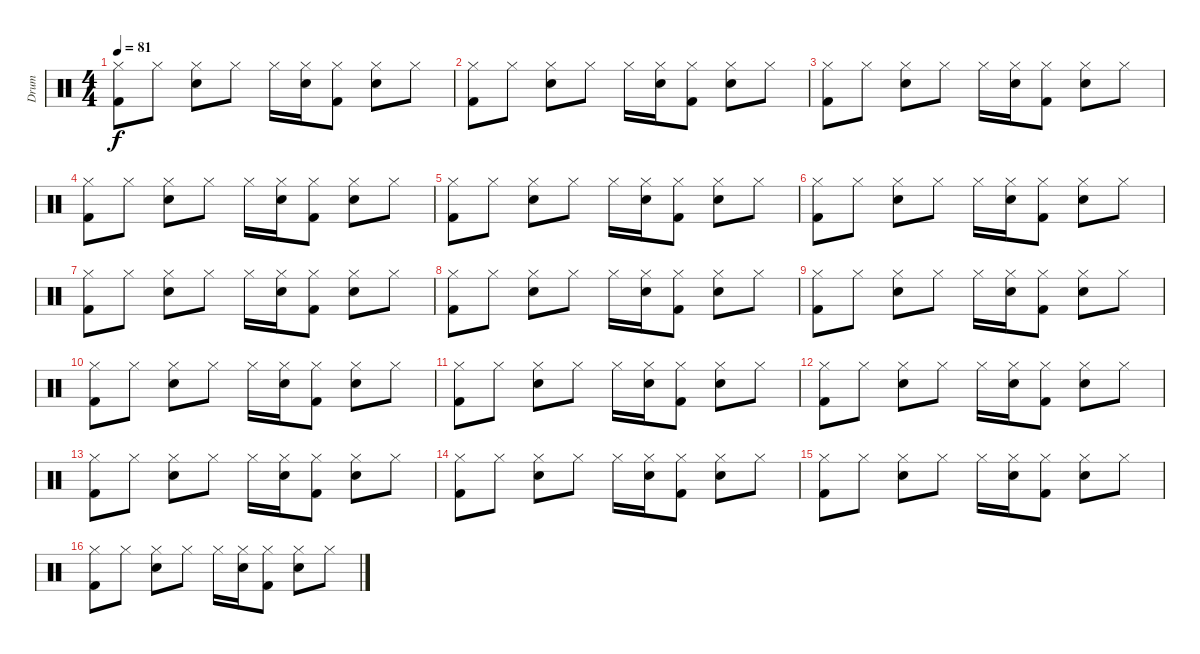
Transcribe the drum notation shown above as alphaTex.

\track ("Drum" "Drum") {instrument percussion}
\staff {score}
\articulation defaults
\ts (4 4)
\tempo 81
\clef neutral
\ks c
("Hi-Hat (closed)" "Kick (hit) 2").8{dy f} "Hi-Hat (closed)".8 ("Hi-Hat (closed)" "Snare (hit) 2").8 "Hi-Hat (closed)".8 "Hi-Hat (closed)".16 ("Hi-Hat (closed)" "Snare (hit) 2").16 ("Hi-Hat (closed)" "Kick (hit) 2").8 ("Hi-Hat (closed)" "Snare (hit) 2").8 "Hi-Hat (closed)".8 |
("Hi-Hat (closed)" "Kick (hit) 2").8 "Hi-Hat (closed)".8 ("Hi-Hat (closed)" "Snare (hit) 2").8 "Hi-Hat (closed)".8 "Hi-Hat (closed)".16 ("Hi-Hat (closed)" "Snare (hit) 2").16 ("Hi-Hat (closed)" "Kick (hit) 2").8 ("Hi-Hat (closed)" "Snare (hit) 2").8 "Hi-Hat (closed)".8 |
("Hi-Hat (closed)" "Kick (hit) 2").8 "Hi-Hat (closed)".8 ("Hi-Hat (closed)" "Snare (hit) 2").8 "Hi-Hat (closed)".8 "Hi-Hat (closed)".16 ("Hi-Hat (closed)" "Snare (hit) 2").16 ("Hi-Hat (closed)" "Kick (hit) 2").8 ("Hi-Hat (closed)" "Snare (hit) 2").8 "Hi-Hat (closed)".8 |
("Hi-Hat (closed)" "Kick (hit) 2").8 "Hi-Hat (closed)".8 ("Hi-Hat (closed)" "Snare (hit) 2").8 "Hi-Hat (closed)".8 "Hi-Hat (closed)".16 ("Hi-Hat (closed)" "Snare (hit) 2").16 ("Hi-Hat (closed)" "Kick (hit) 2").8 ("Hi-Hat (closed)" "Snare (hit) 2").8 "Hi-Hat (closed)".8 |
("Hi-Hat (closed)" "Kick (hit) 2").8 "Hi-Hat (closed)".8 ("Hi-Hat (closed)" "Snare (hit) 2").8 "Hi-Hat (closed)".8 "Hi-Hat (closed)".16 ("Hi-Hat (closed)" "Snare (hit) 2").16 ("Hi-Hat (closed)" "Kick (hit) 2").8 ("Hi-Hat (closed)" "Snare (hit) 2").8 "Hi-Hat (closed)".8 |
("Hi-Hat (closed)" "Kick (hit) 2").8 "Hi-Hat (closed)".8 ("Hi-Hat (closed)" "Snare (hit) 2").8 "Hi-Hat (closed)".8 "Hi-Hat (closed)".16 ("Hi-Hat (closed)" "Snare (hit) 2").16 ("Hi-Hat (closed)" "Kick (hit) 2").8 ("Hi-Hat (closed)" "Snare (hit) 2").8 "Hi-Hat (closed)".8 |
("Hi-Hat (closed)" "Kick (hit) 2").8 "Hi-Hat (closed)".8 ("Hi-Hat (closed)" "Snare (hit) 2").8 "Hi-Hat (closed)".8 "Hi-Hat (closed)".16 ("Hi-Hat (closed)" "Snare (hit) 2").16 ("Hi-Hat (closed)" "Kick (hit) 2").8 ("Hi-Hat (closed)" "Snare (hit) 2").8 "Hi-Hat (closed)".8 |
("Hi-Hat (closed)" "Kick (hit) 2").8 "Hi-Hat (closed)".8 ("Hi-Hat (closed)" "Snare (hit) 2").8 "Hi-Hat (closed)".8 "Hi-Hat (closed)".16 ("Hi-Hat (closed)" "Snare (hit) 2").16 ("Hi-Hat (closed)" "Kick (hit) 2").8 ("Hi-Hat (closed)" "Snare (hit) 2").8 "Hi-Hat (closed)".8 |
("Hi-Hat (closed)" "Kick (hit) 2").8 "Hi-Hat (closed)".8 ("Hi-Hat (closed)" "Snare (hit) 2").8 "Hi-Hat (closed)".8 "Hi-Hat (closed)".16 ("Hi-Hat (closed)" "Snare (hit) 2").16 ("Hi-Hat (closed)" "Kick (hit) 2").8 ("Hi-Hat (closed)" "Snare (hit) 2").8 "Hi-Hat (closed)".8 |
("Hi-Hat (closed)" "Kick (hit) 2").8 "Hi-Hat (closed)".8 ("Hi-Hat (closed)" "Snare (hit) 2").8 "Hi-Hat (closed)".8 "Hi-Hat (closed)".16 ("Hi-Hat (closed)" "Snare (hit) 2").16 ("Hi-Hat (closed)" "Kick (hit) 2").8 ("Hi-Hat (closed)" "Snare (hit) 2").8 "Hi-Hat (closed)".8 |
("Hi-Hat (closed)" "Kick (hit) 2").8 "Hi-Hat (closed)".8 ("Hi-Hat (closed)" "Snare (hit) 2").8 "Hi-Hat (closed)".8 "Hi-Hat (closed)".16 ("Hi-Hat (closed)" "Snare (hit) 2").16 ("Hi-Hat (closed)" "Kick (hit) 2").8 ("Hi-Hat (closed)" "Snare (hit) 2").8 "Hi-Hat (closed)".8 |
("Hi-Hat (closed)" "Kick (hit) 2").8 "Hi-Hat (closed)".8 ("Hi-Hat (closed)" "Snare (hit) 2").8 "Hi-Hat (closed)".8 "Hi-Hat (closed)".16 ("Hi-Hat (closed)" "Snare (hit) 2").16 ("Hi-Hat (closed)" "Kick (hit) 2").8 ("Hi-Hat (closed)" "Snare (hit) 2").8 "Hi-Hat (closed)".8 |
("Hi-Hat (closed)" "Kick (hit) 2").8 "Hi-Hat (closed)".8 ("Hi-Hat (closed)" "Snare (hit) 2").8 "Hi-Hat (closed)".8 "Hi-Hat (closed)".16 ("Hi-Hat (closed)" "Snare (hit) 2").16 ("Hi-Hat (closed)" "Kick (hit) 2").8 ("Hi-Hat (closed)" "Snare (hit) 2").8 "Hi-Hat (closed)".8 |
("Hi-Hat (closed)" "Kick (hit) 2").8 "Hi-Hat (closed)".8 ("Hi-Hat (closed)" "Snare (hit) 2").8 "Hi-Hat (closed)".8 "Hi-Hat (closed)".16 ("Hi-Hat (closed)" "Snare (hit) 2").16 ("Hi-Hat (closed)" "Kick (hit) 2").8 ("Hi-Hat (closed)" "Snare (hit) 2").8 "Hi-Hat (closed)".8 |
("Hi-Hat (closed)" "Kick (hit) 2").8 "Hi-Hat (closed)".8 ("Hi-Hat (closed)" "Snare (hit) 2").8 "Hi-Hat (closed)".8 "Hi-Hat (closed)".16 ("Hi-Hat (closed)" "Snare (hit) 2").16 ("Hi-Hat (closed)" "Kick (hit) 2").8 ("Hi-Hat (closed)" "Snare (hit) 2").8 "Hi-Hat (closed)".8 |
("Hi-Hat (closed)" "Kick (hit) 2").8 "Hi-Hat (closed)".8 ("Hi-Hat (closed)" "Snare (hit) 2").8 "Hi-Hat (closed)".8 "Hi-Hat (closed)".16 ("Hi-Hat (closed)" "Snare (hit) 2").16 ("Hi-Hat (closed)" "Kick (hit) 2").8 ("Hi-Hat (closed)" "Snare (hit) 2").8 "Hi-Hat (closed)".8
